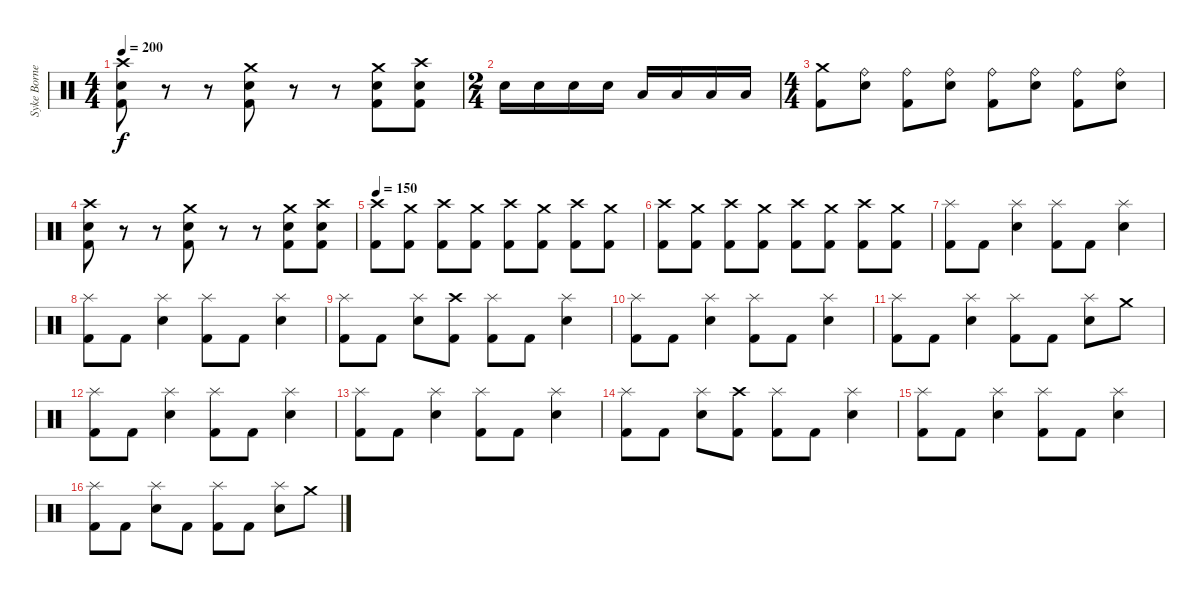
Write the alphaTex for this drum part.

\track ("Syke Bornetto (Drums)" "Syke Borne") {instrument percussion}
\staff {score}
\articulation defaults
\ts (4 4)
\tempo 200
\clef neutral
\ks c
("Crash high (hit)" "Kick (hit) 2" "Electric Snare (hit)").8{dy f} r.8 r.8 ("Crash medium (hit)" "Kick (hit) 2" "Electric Snare (hit)").8 r.8 r.8 ("Crash medium (hit)" "Kick (hit) 2" "Electric Snare (hit)").8 ("Crash high (hit)" "Kick (hit) 2" "Electric Snare (hit)").8 |
\ts (2 4)
"Electric Snare (hit)".16 "Electric Snare (hit)".16 "Electric Snare (hit)".16 "Electric Snare (hit)".16 "Low Floor Tom (hit)".16 "Low Floor Tom (hit)".16 "Low Floor Tom (hit)".16 "Low Floor Tom (hit)".16 |
\ts (4 4)
("Crash medium (hit)" "Kick (hit) 2").8 ("Ride (bell)" "Electric Snare (hit)").8 ("Ride (bell)" "Kick (hit) 2").8 ("Ride (bell)" "Electric Snare (hit)").8 ("Ride (bell)" "Kick (hit) 2").8 ("Ride (bell)" "Electric Snare (hit)").8 ("Ride (bell)" "Kick (hit) 2").8 ("Ride (bell)" "Electric Snare (hit)").8 |
("Crash high (hit)" "Kick (hit) 2" "Electric Snare (hit)").8 r.8 r.8 ("Crash medium (hit)" "Kick (hit) 2" "Electric Snare (hit)").8 r.8 r.8 ("Crash medium (hit)" "Kick (hit) 2" "Electric Snare (hit)").8 ("Crash high (hit)" "Kick (hit) 2" "Electric Snare (hit)").8 |
\tempo 150
("Crash high (hit)" "Kick (hit) 2").8 ("Crash medium (hit)" "Kick (hit) 2").8 ("Crash high (hit)" "Kick (hit) 2").8 ("Crash medium (hit)" "Kick (hit) 2").8 ("Crash high (hit)" "Kick (hit) 2").8 ("Crash medium (hit)" "Kick (hit) 2").8 ("Crash high (hit)" "Kick (hit) 2").8 ("Crash medium (hit)" "Kick (hit) 2").8 |
("Crash high (hit)" "Kick (hit) 2").8 ("Crash medium (hit)" "Kick (hit) 2").8 ("Crash high (hit)" "Kick (hit) 2").8 ("Crash medium (hit)" "Kick (hit) 2").8 ("Crash high (hit)" "Kick (hit) 2").8 ("Crash medium (hit)" "Kick (hit) 2").8 ("Crash high (hit)" "Kick (hit) 2").8 ("Crash medium (hit)" "Kick (hit) 2").8 |
("Splash (hit)" "Kick (hit) 2").8 "Kick (hit) 2".8 ("Splash (hit)" "Electric Snare (hit)").4 ("Splash (hit)" "Kick (hit) 2").8 "Kick (hit) 2".8 ("Splash (hit)" "Electric Snare (hit)").4 |
("Splash (hit)" "Kick (hit) 2").8 "Kick (hit) 2".8 ("Splash (hit)" "Electric Snare (hit)").4 ("Splash (hit)" "Kick (hit) 2").8 "Kick (hit) 2".8 ("Splash (hit)" "Electric Snare (hit)").4 |
("Splash (hit)" "Kick (hit) 2").8 "Kick (hit) 2".8 ("Splash (hit)" "Electric Snare (hit)").8 ("Crash high (hit)" "Kick (hit) 2").8 ("Splash (hit)" "Kick (hit) 2").8 "Kick (hit) 2".8 ("Splash (hit)" "Electric Snare (hit)").4 |
("Splash (hit)" "Kick (hit) 2").8 "Kick (hit) 2".8 ("Splash (hit)" "Electric Snare (hit)").4 ("Splash (hit)" "Kick (hit) 2").8 "Kick (hit) 2".8 ("Splash (hit)" "Electric Snare (hit)").4 |
("Splash (hit)" "Kick (hit) 2").8 "Kick (hit) 2".8 ("Splash (hit)" "Electric Snare (hit)").4 ("Splash (hit)" "Kick (hit) 2").8 "Kick (hit) 2".8 ("Splash (hit)" "Electric Snare (hit)").8 "Crash medium (hit)".8 |
("Splash (hit)" "Kick (hit) 2").8 "Kick (hit) 2".8 ("Splash (hit)" "Electric Snare (hit)").4 ("Splash (hit)" "Kick (hit) 2").8 "Kick (hit) 2".8 ("Splash (hit)" "Electric Snare (hit)").4 |
("Splash (hit)" "Kick (hit) 2").8 "Kick (hit) 2".8 ("Splash (hit)" "Electric Snare (hit)").4 ("Splash (hit)" "Kick (hit) 2").8 "Kick (hit) 2".8 ("Splash (hit)" "Electric Snare (hit)").4 |
("Splash (hit)" "Kick (hit) 2").8 "Kick (hit) 2".8 ("Splash (hit)" "Electric Snare (hit)").8 ("Crash high (hit)" "Kick (hit) 2").8 ("Splash (hit)" "Kick (hit) 2").8 "Kick (hit) 2".8 ("Splash (hit)" "Electric Snare (hit)").4 |
("Splash (hit)" "Kick (hit) 2").8 "Kick (hit) 2".8 ("Splash (hit)" "Electric Snare (hit)").4 ("Splash (hit)" "Kick (hit) 2").8 "Kick (hit) 2".8 ("Splash (hit)" "Electric Snare (hit)").4 |
("Splash (hit)" "Kick (hit) 2").8 "Kick (hit) 2".8 ("Splash (hit)" "Electric Snare (hit)").8 "Kick (hit) 2".8 ("Splash (hit)" "Kick (hit) 2").8 "Kick (hit) 2".8 ("Splash (hit)" "Electric Snare (hit)").8 "Crash medium (hit)".8
